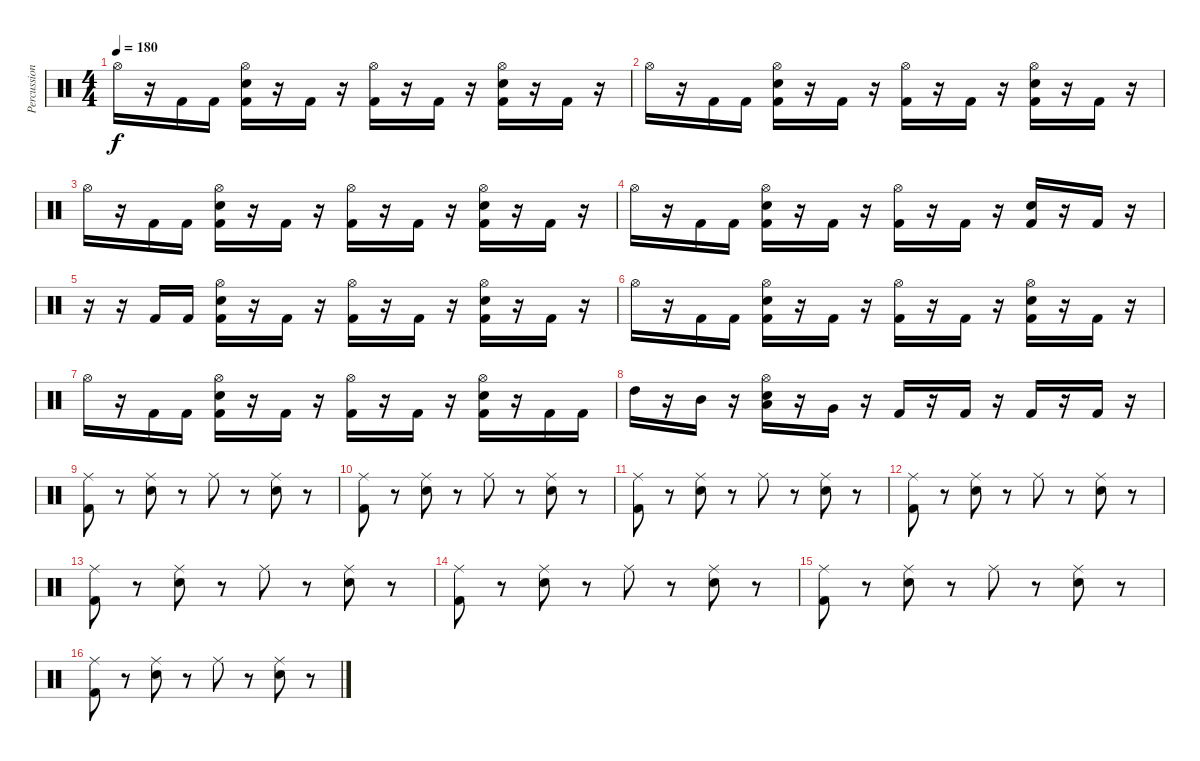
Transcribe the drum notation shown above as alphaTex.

\track ("Percussion" "Percussion") {instrument percussion}
\staff {score}
\articulation defaults
\ts (4 4)
\tempo 180
\clef neutral
\ks c "Hi-Hat (open)"{t}.16{dy f}
r.16 "Kick (hit) 2".16 "Kick (hit) 2".16 ("Hi-Hat (open)" "Snare (hit) 2" "Kick (hit) 2").16 r.16 "Kick (hit) 2".16 r.16 ("Hi-Hat (open)" "Kick (hit) 2").16 r.16 "Kick (hit) 2".16 r.16 ("Hi-Hat (open)" "Snare (hit) 2" "Kick (hit) 2").16 r.16 "Kick (hit) 2".16 r.16 |
"Hi-Hat (open)".16 r.16 "Kick (hit) 2".16 "Kick (hit) 2".16 ("Hi-Hat (open)" "Snare (hit) 2" "Kick (hit) 2").16 r.16 "Kick (hit) 2".16 r.16 ("Hi-Hat (open)" "Kick (hit) 2").16 r.16 "Kick (hit) 2".16 r.16 ("Hi-Hat (open)" "Snare (hit) 2" "Kick (hit) 2").16 r.16 "Kick (hit) 2".16 r.16 |
"Hi-Hat (open)".16 r.16 "Kick (hit) 2".16 "Kick (hit) 2".16 ("Hi-Hat (open)" "Snare (hit) 2" "Kick (hit) 2").16 r.16 "Kick (hit) 2".16 r.16 ("Hi-Hat (open)" "Kick (hit) 2").16 r.16 "Kick (hit) 2".16 r.16 ("Hi-Hat (open)" "Snare (hit) 2" "Kick (hit) 2").16 r.16 "Kick (hit) 2".16 r.16 |
"Hi-Hat (open)".16 r.16 "Kick (hit) 2".16 "Kick (hit) 2".16 ("Hi-Hat (open)" "Snare (hit) 2" "Kick (hit) 2").16 r.16 "Kick (hit) 2".16 r.16 ("Hi-Hat (open)" "Kick (hit) 2").16 r.16 "Kick (hit) 2".16 r.16 ("Snare (hit) 2" "Kick (hit) 2").16 r.16 "Kick (hit) 2".16 r.16 |
r.16 r.16 "Kick (hit) 2".16 "Kick (hit) 2".16 ("Hi-Hat (open)" "Snare (hit) 2" "Kick (hit) 2").16 r.16 "Kick (hit) 2".16 r.16 ("Hi-Hat (open)" "Kick (hit) 2").16 r.16 "Kick (hit) 2".16 r.16 ("Hi-Hat (open)" "Snare (hit) 2" "Kick (hit) 2").16 r.16 "Kick (hit) 2".16 r.16 |
"Hi-Hat (open)".16 r.16 "Kick (hit) 2".16 "Kick (hit) 2".16 ("Hi-Hat (open)" "Snare (hit) 2" "Kick (hit) 2").16 r.16 "Kick (hit) 2".16 r.16 ("Hi-Hat (open)" "Kick (hit) 2").16 r.16 "Kick (hit) 2".16 r.16 ("Hi-Hat (open)" "Snare (hit) 2" "Kick (hit) 2").16 r.16 "Kick (hit) 2".16 r.16 |
"Hi-Hat (open)".16 r.16 "Kick (hit) 2".16 "Kick (hit) 2".16 ("Hi-Hat (open)" "Snare (hit) 2" "Kick (hit) 2").16 r.16 "Kick (hit) 2".16 r.16 ("Hi-Hat (open)" "Kick (hit) 2").16 r.16 "Kick (hit) 2".16 r.16 ("Hi-Hat (open)" "Snare (hit) 2" "Kick (hit) 2").16 r.16 "Kick (hit) 2".16 "Kick (hit) 2".16 |
"High Tom (hit)".16 r.16 "Mid Tom (hit)".16 r.16 ("Hi-Hat (open)" "Snare (hit) 2" "Low Tom (hit)").16 r.16 "Very Low Tom (hit)".16 r.16 "Kick (hit) 2".16 r.16 "Kick (hit) 2".16 r.16 "Kick (hit) 2".16 r.16 "Kick (hit) 2".16 r.16 |
("Ride (middle)" "Kick (hit) 2").8 r.8 ("Ride (middle)" "Snare (hit) 2").8 r.8 "Ride (middle)".8 r.8 ("Ride (middle)" "Snare (hit) 2").8 r.8 |
("Ride (middle)" "Kick (hit) 2").8 r.8 ("Ride (middle)" "Snare (hit) 2").8 r.8 "Ride (middle)".8 r.8 ("Ride (middle)" "Snare (hit) 2").8 r.8 |
("Ride (middle)" "Kick (hit) 2").8 r.8 ("Ride (middle)" "Snare (hit) 2").8 r.8 "Ride (middle)".8 r.8 ("Ride (middle)" "Snare (hit) 2").8 r.8 |
("Ride (middle)" "Kick (hit) 2").8 r.8 ("Ride (middle)" "Snare (hit) 2").8 r.8 "Ride (middle)".8 r.8 ("Ride (middle)" "Snare (hit) 2").8 r.8 |
("Ride (middle)" "Kick (hit) 2").8 r.8 ("Ride (middle)" "Snare (hit) 2").8 r.8 "Ride (middle)".8 r.8 ("Ride (middle)" "Snare (hit) 2").8 r.8 |
("Ride (middle)" "Kick (hit) 2").8 r.8 ("Ride (middle)" "Snare (hit) 2").8 r.8 "Ride (middle)".8 r.8 ("Ride (middle)" "Snare (hit) 2").8 r.8 |
("Ride (middle)" "Kick (hit) 2").8 r.8 ("Ride (middle)" "Snare (hit) 2").8 r.8 "Ride (middle)".8 r.8 ("Ride (middle)" "Snare (hit) 2").8 r.8 |
("Ride (middle)" "Kick (hit) 2").8 r.8 ("Ride (middle)" "Snare (hit) 2").8 r.8 "Ride (middle)".8 r.8 ("Ride (middle)" "Snare (hit) 2").8 r.8
